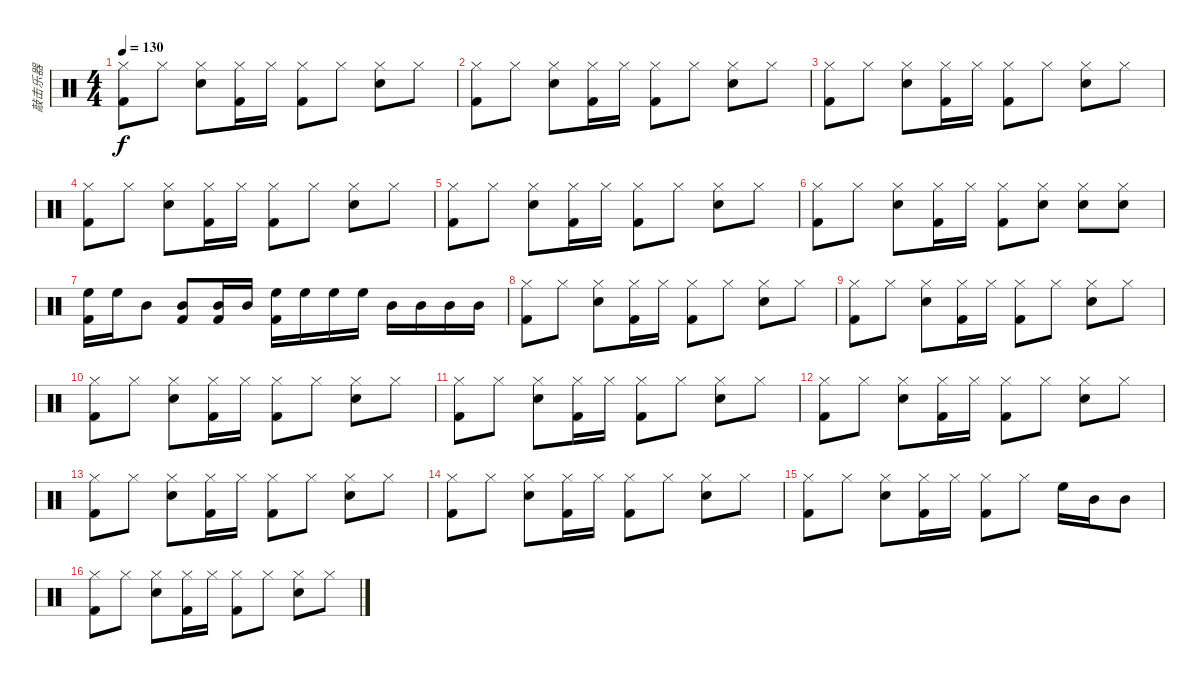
\track ("敲击乐器" "敲击乐器") {instrument percussion}
\staff {score}
\articulation defaults
\ts (4 4)
\tempo 130
\clef neutral
\ks c
("Hi-Hat (closed)" "Kick (hit) 2").8{dy f} "Hi-Hat (closed)".8 ("Hi-Hat (closed)" "Snare (hit) 2").8 ("Hi-Hat (closed)" "Kick (hit) 2").16 "Hi-Hat (closed)".16 ("Hi-Hat (closed)" "Kick (hit) 2").8 "Hi-Hat (closed)".8 ("Hi-Hat (closed)" "Snare (hit) 2").8 "Hi-Hat (closed)".8 |
("Hi-Hat (closed)" "Kick (hit) 2").8 "Hi-Hat (closed)".8 ("Hi-Hat (closed)" "Snare (hit) 2").8 ("Hi-Hat (closed)" "Kick (hit) 2").16 "Hi-Hat (closed)".16 ("Hi-Hat (closed)" "Kick (hit) 2").8 "Hi-Hat (closed)".8 ("Hi-Hat (closed)" "Snare (hit) 2").8 "Hi-Hat (closed)".8 |
("Hi-Hat (closed)" "Kick (hit) 2").8 "Hi-Hat (closed)".8 ("Hi-Hat (closed)" "Snare (hit) 2").8 ("Hi-Hat (closed)" "Kick (hit) 2").16 "Hi-Hat (closed)".16 ("Hi-Hat (closed)" "Kick (hit) 2").8 "Hi-Hat (closed)".8 ("Hi-Hat (closed)" "Snare (hit) 2").8 "Hi-Hat (closed)".8 |
("Hi-Hat (closed)" "Kick (hit) 2").8 "Hi-Hat (closed)".8 ("Hi-Hat (closed)" "Snare (hit) 2").8 ("Hi-Hat (closed)" "Kick (hit) 2").16 "Hi-Hat (closed)".16 ("Hi-Hat (closed)" "Kick (hit) 2").8 "Hi-Hat (closed)".8 ("Hi-Hat (closed)" "Snare (hit) 2").8 "Hi-Hat (closed)".8 |
("Hi-Hat (closed)" "Kick (hit) 2").8 "Hi-Hat (closed)".8 ("Hi-Hat (closed)" "Snare (hit) 2").8 ("Hi-Hat (closed)" "Kick (hit) 2").16 "Hi-Hat (closed)".16 ("Hi-Hat (closed)" "Kick (hit) 2").8 "Hi-Hat (closed)".8 ("Hi-Hat (closed)" "Snare (hit) 2").8 "Hi-Hat (closed)".8 |
("Hi-Hat (closed)" "Kick (hit) 2").8 "Hi-Hat (closed)".8 ("Hi-Hat (closed)" "Snare (hit) 2").8 ("Hi-Hat (closed)" "Kick (hit) 2").16 "Hi-Hat (closed)".16 ("Hi-Hat (closed)" "Kick (hit) 2").8 ("Hi-Hat (closed)" "Snare (hit) 2").8 ("Hi-Hat (closed)" "Snare (hit) 2").8 ("Hi-Hat (closed)" "Snare (hit) 2").8 |
("High Floor Tom (hit)" "Kick (hit) 2").16 "High Floor Tom (hit)".16 "Mid Tom (hit)".8 ("Mid Tom (hit)" "Kick (hit) 2").8 ("Mid Tom (hit)" "Kick (hit) 2").16 "Mid Tom (hit)".16 ("High Floor Tom (hit)" "Kick (hit) 2").16 "High Floor Tom (hit)".16 "High Floor Tom (hit)".16 "High Floor Tom (hit)".16 "Mid Tom (hit)".16 "Mid Tom (hit)".16 "Mid Tom (hit)".16 "Mid Tom (hit)".16 |
("Hi-Hat (closed)" "Kick (hit) 2").8 "Hi-Hat (closed)".8 ("Hi-Hat (closed)" "Snare (hit) 2").8 ("Hi-Hat (closed)" "Kick (hit) 2").16 "Hi-Hat (closed)".16 ("Hi-Hat (closed)" "Kick (hit) 2").8 "Hi-Hat (closed)".8 ("Hi-Hat (closed)" "Snare (hit) 2").8 "Hi-Hat (closed)".8 |
("Hi-Hat (closed)" "Kick (hit) 2").8 "Hi-Hat (closed)".8 ("Hi-Hat (closed)" "Snare (hit) 2").8 ("Hi-Hat (closed)" "Kick (hit) 2").16 "Hi-Hat (closed)".16 ("Hi-Hat (closed)" "Kick (hit) 2").8 "Hi-Hat (closed)".8 ("Hi-Hat (closed)" "Snare (hit) 2").8 "Hi-Hat (closed)".8 |
("Hi-Hat (closed)" "Kick (hit) 2").8 "Hi-Hat (closed)".8 ("Hi-Hat (closed)" "Snare (hit) 2").8 ("Hi-Hat (closed)" "Kick (hit) 2").16 "Hi-Hat (closed)".16 ("Hi-Hat (closed)" "Kick (hit) 2").8 "Hi-Hat (closed)".8 ("Hi-Hat (closed)" "Snare (hit) 2").8 "Hi-Hat (closed)".8 |
("Hi-Hat (closed)" "Kick (hit) 2").8 "Hi-Hat (closed)".8 ("Hi-Hat (closed)" "Snare (hit) 2").8 ("Hi-Hat (closed)" "Kick (hit) 2").16 "Hi-Hat (closed)".16 ("Hi-Hat (closed)" "Kick (hit) 2").8 "Hi-Hat (closed)".8 ("Hi-Hat (closed)" "Snare (hit) 2").8 "Hi-Hat (closed)".8 |
("Hi-Hat (closed)" "Kick (hit) 2").8 "Hi-Hat (closed)".8 ("Hi-Hat (closed)" "Snare (hit) 2").8 ("Hi-Hat (closed)" "Kick (hit) 2").16 "Hi-Hat (closed)".16 ("Hi-Hat (closed)" "Kick (hit) 2").8 "Hi-Hat (closed)".8 ("Hi-Hat (closed)" "Snare (hit) 2").8 "Hi-Hat (closed)".8 |
("Hi-Hat (closed)" "Kick (hit) 2").8 "Hi-Hat (closed)".8 ("Hi-Hat (closed)" "Snare (hit) 2").8 ("Hi-Hat (closed)" "Kick (hit) 2").16 "Hi-Hat (closed)".16 ("Hi-Hat (closed)" "Kick (hit) 2").8 "Hi-Hat (closed)".8 ("Hi-Hat (closed)" "Snare (hit) 2").8 "Hi-Hat (closed)".8 |
("Hi-Hat (closed)" "Kick (hit) 2").8 "Hi-Hat (closed)".8 ("Hi-Hat (closed)" "Snare (hit) 2").8 ("Hi-Hat (closed)" "Kick (hit) 2").16 "Hi-Hat (closed)".16 ("Hi-Hat (closed)" "Kick (hit) 2").8 "Hi-Hat (closed)".8 ("Hi-Hat (closed)" "Snare (hit) 2").8 "Hi-Hat (closed)".8 |
("Hi-Hat (closed)" "Kick (hit) 2").8 "Hi-Hat (closed)".8 ("Hi-Hat (closed)" "Snare (hit) 2").8 ("Hi-Hat (closed)" "Kick (hit) 2").16 "Hi-Hat (closed)".16 ("Hi-Hat (closed)" "Kick (hit) 2").8 "Hi-Hat (closed)".8 "High Floor Tom (hit)".16 "Mid Tom (hit)".16 "Mid Tom (hit)".8 |
("Hi-Hat (closed)" "Kick (hit) 2").8 "Hi-Hat (closed)".8 ("Hi-Hat (closed)" "Snare (hit) 2").8 ("Hi-Hat (closed)" "Kick (hit) 2").16 "Hi-Hat (closed)".16 ("Hi-Hat (closed)" "Kick (hit) 2").8 "Hi-Hat (closed)".8 ("Hi-Hat (closed)" "Snare (hit) 2").8 "Hi-Hat (closed)".8
